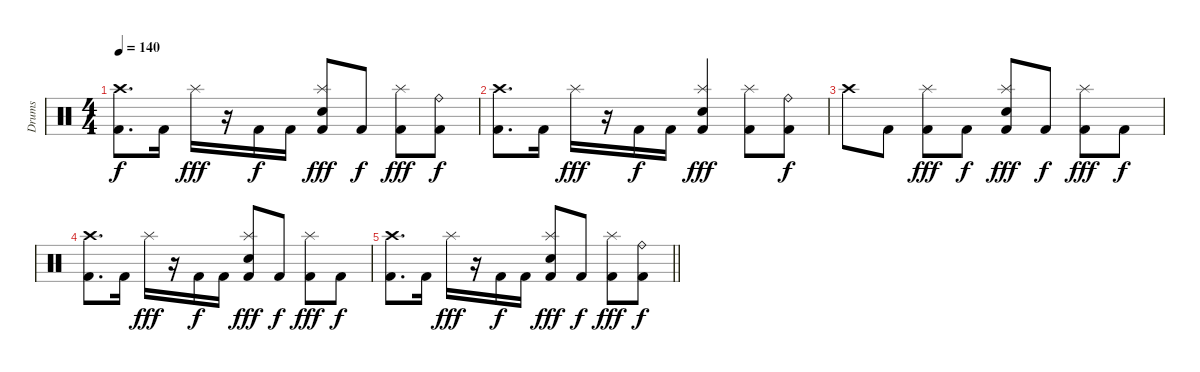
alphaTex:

\track ("Drums" "Drums") {instrument percussion}
\staff {score}
\articulation defaults
\ts (4 4)
\tempo 140
\clef neutral
\ks c
("Crash high (hit)" "Kick (hit) 2").8{d dy f} "Kick (hit) 2".16 "Splash (hit)".16{dy fff} r.16 "Kick (hit) 2".16{dy f} "Kick (hit) 2".16 ("Splash (hit)" "Electric Snare (hit)" "Kick (hit) 2").8{dy fff} "Kick (hit) 2".8{dy f} ("Splash (hit)" "Kick (hit) 2").8{dy fff} ("Ride (bell)" "Kick (hit) 2").8{dy f} |
("Crash high (hit)" "Kick (hit) 2").8{d} "Kick (hit) 2".16 "Splash (hit)".16{dy fff} r.16 "Kick (hit) 2".16{dy f} "Kick (hit) 2".16 ("Splash (hit)" "Electric Snare (hit)" "Kick (hit) 2").4{dy fff} ("Splash (hit)" "Kick (hit) 2").8 ("Ride (bell)" "Kick (hit) 2").8{dy f} |
"Crash high (hit)".8 "Kick (hit) 2".8 ("Splash (hit)" "Kick (hit) 2").8{dy fff} "Kick (hit) 2".8{dy f} ("Splash (hit)" "Electric Snare (hit)" "Kick (hit) 2").8{dy fff} "Kick (hit) 2".8{dy f} ("Splash (hit)" "Kick (hit) 2").8{dy fff} "Kick (hit) 2".8{dy f} |
("Crash high (hit)" "Kick (hit) 2").8{d} "Kick (hit) 2".16 "Splash (hit)".16{dy fff} r.16 "Kick (hit) 2".16{dy f} "Kick (hit) 2".16 ("Splash (hit)" "Electric Snare (hit)" "Kick (hit) 2").8{dy fff} "Kick (hit) 2".8{dy f} ("Splash (hit)" "Kick (hit) 2").8{dy fff} "Kick (hit) 2".8{dy f} |
\barLineRight lightlight
("Crash high (hit)" "Kick (hit) 2").8{d} "Kick (hit) 2".16 "Splash (hit)".16{dy fff} r.16 "Kick (hit) 2".16{dy f} "Kick (hit) 2".16 ("Splash (hit)" "Electric Snare (hit)" "Kick (hit) 2").8{dy fff} "Kick (hit) 2".8{dy f} ("Splash (hit)" "Kick (hit) 2").8{dy fff} ("Ride (bell)" "Kick (hit) 2").8{dy f}
